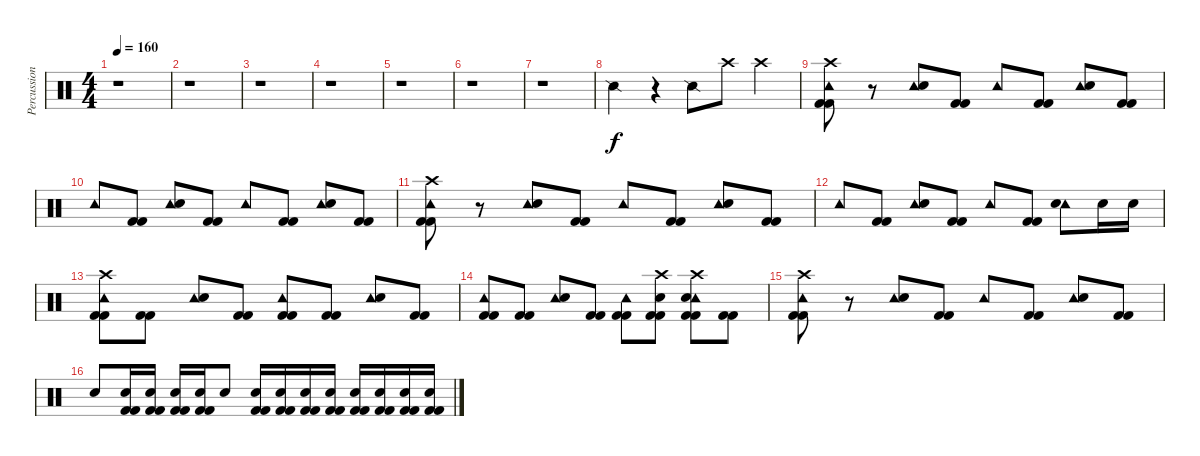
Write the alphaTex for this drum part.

\track ("Percussion" "Percussion") {instrument percussion}
\staff {score}
\articulation defaults
\ts (4 4)
\tempo 160
\clef neutral
\ks c
r.1{dy f} |
r.1 |
r.1 |
r.1 |
r.1 |
r.1 |
r.1 |
"Snare (side stick) 2".4 r.4 "Snare (side stick) 2".8 "Crash high (hit)".8 "Crash high (hit)".4 |
("Tambourine (hit)" "Crash high (hit)" "Kick (hit) 2" "Kick (hit) 2").8 r.8 ("Tambourine (hit)" "Electric Snare (hit)").8 ("Kick (hit) 2" "Kick (hit) 2").8 "Tambourine (hit)".8 ("Kick (hit) 2" "Kick (hit) 2").8 ("Tambourine (hit)" "Electric Snare (hit)").8 ("Kick (hit) 2" "Kick (hit) 2").8 |
"Tambourine (hit)".8 ("Kick (hit) 2" "Kick (hit) 2").8 ("Tambourine (hit)" "Electric Snare (hit)").8 ("Kick (hit) 2" "Kick (hit) 2").8 "Tambourine (hit)".8 ("Kick (hit) 2" "Kick (hit) 2").8 ("Tambourine (hit)" "Electric Snare (hit)").8 ("Kick (hit) 2" "Kick (hit) 2").8 |
("Tambourine (hit)" "Crash high (hit)" "Kick (hit) 2" "Kick (hit) 2").8 r.8 ("Tambourine (hit)" "Electric Snare (hit)").8 ("Kick (hit) 2" "Kick (hit) 2").8 "Tambourine (hit)".8 ("Kick (hit) 2" "Kick (hit) 2").8 ("Tambourine (hit)" "Electric Snare (hit)").8 ("Kick (hit) 2" "Kick (hit) 2").8 |
"Tambourine (hit)".8 ("Kick (hit) 2" "Kick (hit) 2").8 ("Tambourine (hit)" "Electric Snare (hit)").8 ("Kick (hit) 2" "Kick (hit) 2").8 "Tambourine (hit)".8 ("Kick (hit) 2" "Kick (hit) 2").8 ("Tambourine (hit)" "Electric Snare (hit)").8 "Snare (hit) 2".16 "Snare (hit) 2".16 |
("Tambourine (hit)" "Crash high (hit)" "Kick (hit) 2" "Kick (hit) 2").8 ("Kick (hit) 2" "Kick (hit) 2").8 ("Tambourine (hit)" "Electric Snare (hit)").8 ("Kick (hit) 2" "Kick (hit) 2").8 ("Tambourine (hit)" "Kick (hit) 2" "Kick (hit) 2").8 ("Kick (hit) 2" "Kick (hit) 2").8 ("Tambourine (hit)" "Electric Snare (hit)").8 ("Kick (hit) 2" "Kick (hit) 2").8 |
("Tambourine (hit)" "Kick (hit) 2" "Kick (hit) 2").8 ("Kick (hit) 2" "Kick (hit) 2").8 ("Tambourine (hit)" "Electric Snare (hit)").8 ("Kick (hit) 2" "Kick (hit) 2").8 ("Tambourine (hit)" "Kick (hit) 2" "Kick (hit) 2").8 ("Crash high (hit)" "Electric Snare (hit)" "Kick (hit) 2" "Kick (hit) 2").8 ("Tambourine (hit)" "Crash high (hit)" "Electric Snare (hit)" "Kick (hit) 2" "Kick (hit) 2").8 ("Kick (hit) 2" "Kick (hit) 2").8 |
("Tambourine (hit)" "Crash high (hit)" "Kick (hit) 2" "Kick (hit) 2").8 r.8 ("Tambourine (hit)" "Electric Snare (hit)").8 ("Kick (hit) 2" "Kick (hit) 2").8 "Tambourine (hit)".8 ("Kick (hit) 2" "Kick (hit) 2").8 ("Tambourine (hit)" "Electric Snare (hit)").8 ("Kick (hit) 2" "Kick (hit) 2").8 |
"Electric Snare (hit)".8 ("Electric Snare (hit)" "Kick (hit) 2" "Kick (hit) 2").16 ("Electric Snare (hit)" "Kick (hit) 2" "Kick (hit) 2").16 ("Electric Snare (hit)" "Kick (hit) 2" "Kick (hit) 2").16 ("Electric Snare (hit)" "Kick (hit) 2" "Kick (hit) 2").16 "Electric Snare (hit)".8 ("Electric Snare (hit)" "Kick (hit) 2" "Kick (hit) 2").16 ("Electric Snare (hit)" "Kick (hit) 2" "Kick (hit) 2").16 ("Electric Snare (hit)" "Kick (hit) 2" "Kick (hit) 2").16 ("Electric Snare (hit)" "Kick (hit) 2" "Kick (hit) 2").16 ("Electric Snare (hit)" "Kick (hit) 2" "Kick (hit) 2").16 ("Electric Snare (hit)" "Kick (hit) 2" "Kick (hit) 2").16 ("Electric Snare (hit)" "Kick (hit) 2" "Kick (hit) 2").16 ("Electric Snare (hit)" "Kick (hit) 2" "Kick (hit) 2").16
